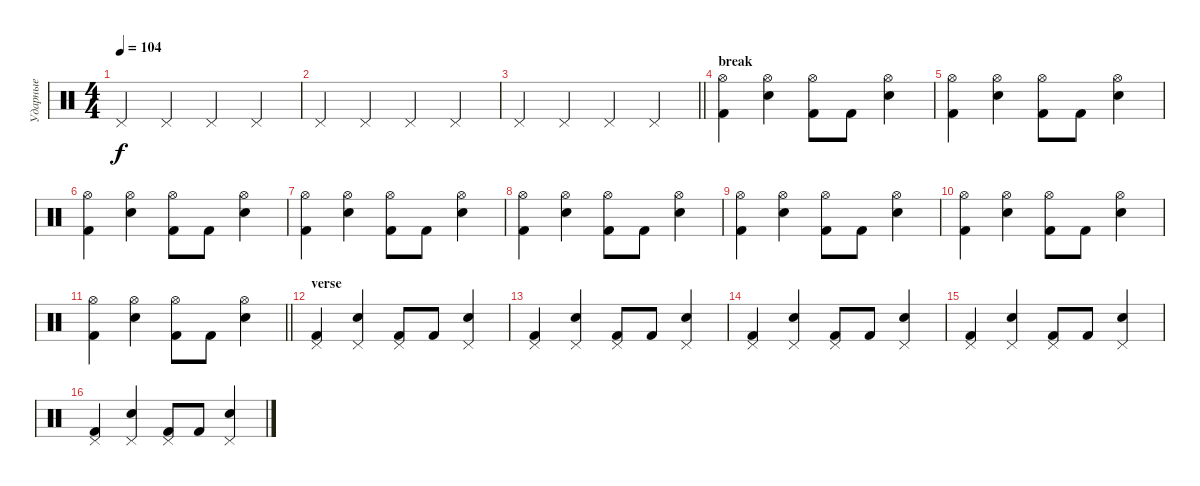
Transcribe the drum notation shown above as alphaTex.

\track ("Ударные" "Ударные") {instrument percussion}
\staff {score}
\articulation defaults
\ts (4 4)
\tempo 104
\clef neutral
\ks c "Pedal Hi-Hat (hit)".4{dy f} "Pedal Hi-Hat (hit)".4 "Pedal Hi-Hat (hit)".4 "Pedal Hi-Hat (hit)".4
|
"Pedal Hi-Hat (hit)".4 "Pedal Hi-Hat (hit)".4 "Pedal Hi-Hat (hit)".4 "Pedal Hi-Hat (hit)".4 |
\barLineRight lightlight "Pedal Hi-Hat (hit)".4 "Pedal Hi-Hat (hit)".4 "Pedal Hi-Hat (hit)".4 "Pedal Hi-Hat (hit)".4
|
\section ("" "break")
("Hi-Hat (open)" "Kick (hit) 2").4 ("Hi-Hat (open)" "Electric Snare (hit)").4 ("Hi-Hat (open)" "Kick (hit) 2").8 "Kick (hit) 2".8 ("Hi-Hat (open)" "Electric Snare (hit)").4 |
("Hi-Hat (open)" "Kick (hit) 2").4 ("Hi-Hat (open)" "Electric Snare (hit)").4 ("Hi-Hat (open)" "Kick (hit) 2").8 "Kick (hit) 2".8 ("Hi-Hat (open)" "Electric Snare (hit)").4 |
("Hi-Hat (open)" "Kick (hit) 2").4 ("Hi-Hat (open)" "Electric Snare (hit)").4 ("Hi-Hat (open)" "Kick (hit) 2").8 "Kick (hit) 2".8 ("Hi-Hat (open)" "Electric Snare (hit)").4 |
("Hi-Hat (open)" "Kick (hit) 2").4 ("Hi-Hat (open)" "Electric Snare (hit)").4 ("Hi-Hat (open)" "Kick (hit) 2").8 "Kick (hit) 2".8 ("Hi-Hat (open)" "Electric Snare (hit)").4 |
("Hi-Hat (open)" "Kick (hit) 2").4 ("Hi-Hat (open)" "Electric Snare (hit)").4 ("Hi-Hat (open)" "Kick (hit) 2").8 "Kick (hit) 2".8 ("Hi-Hat (open)" "Electric Snare (hit)").4 |
("Hi-Hat (open)" "Kick (hit) 2").4 ("Hi-Hat (open)" "Electric Snare (hit)").4 ("Hi-Hat (open)" "Kick (hit) 2").8 "Kick (hit) 2".8 ("Hi-Hat (open)" "Electric Snare (hit)").4 |
("Hi-Hat (open)" "Kick (hit) 2").4 ("Hi-Hat (open)" "Electric Snare (hit)").4 ("Hi-Hat (open)" "Kick (hit) 2").8 "Kick (hit) 2".8 ("Hi-Hat (open)" "Electric Snare (hit)").4 |
\barLineRight lightlight
("Hi-Hat (open)" "Kick (hit) 2").4 ("Hi-Hat (open)" "Electric Snare (hit)").4 ("Hi-Hat (open)" "Kick (hit) 2").8 "Kick (hit) 2".8 ("Hi-Hat (open)" "Electric Snare (hit)").4 |
\section ("" "verse")
("Pedal Hi-Hat (hit)" "Kick (hit) 2").4 ("Pedal Hi-Hat (hit)" "Electric Snare (hit)").4 ("Pedal Hi-Hat (hit)" "Kick (hit) 2").8 "Kick (hit) 2".8 ("Pedal Hi-Hat (hit)" "Electric Snare (hit)").4 |
("Pedal Hi-Hat (hit)" "Kick (hit) 2").4 ("Pedal Hi-Hat (hit)" "Electric Snare (hit)").4 ("Pedal Hi-Hat (hit)" "Kick (hit) 2").8 "Kick (hit) 2".8 ("Pedal Hi-Hat (hit)" "Electric Snare (hit)").4 |
("Pedal Hi-Hat (hit)" "Kick (hit) 2").4 ("Pedal Hi-Hat (hit)" "Electric Snare (hit)").4 ("Pedal Hi-Hat (hit)" "Kick (hit) 2").8 "Kick (hit) 2".8 ("Pedal Hi-Hat (hit)" "Electric Snare (hit)").4 |
("Pedal Hi-Hat (hit)" "Kick (hit) 2").4 ("Pedal Hi-Hat (hit)" "Electric Snare (hit)").4 ("Pedal Hi-Hat (hit)" "Kick (hit) 2").8 "Kick (hit) 2".8 ("Pedal Hi-Hat (hit)" "Electric Snare (hit)").4 |
("Pedal Hi-Hat (hit)" "Kick (hit) 2").4 ("Pedal Hi-Hat (hit)" "Electric Snare (hit)").4 ("Pedal Hi-Hat (hit)" "Kick (hit) 2").8 "Kick (hit) 2".8 ("Pedal Hi-Hat (hit)" "Electric Snare (hit)").4
